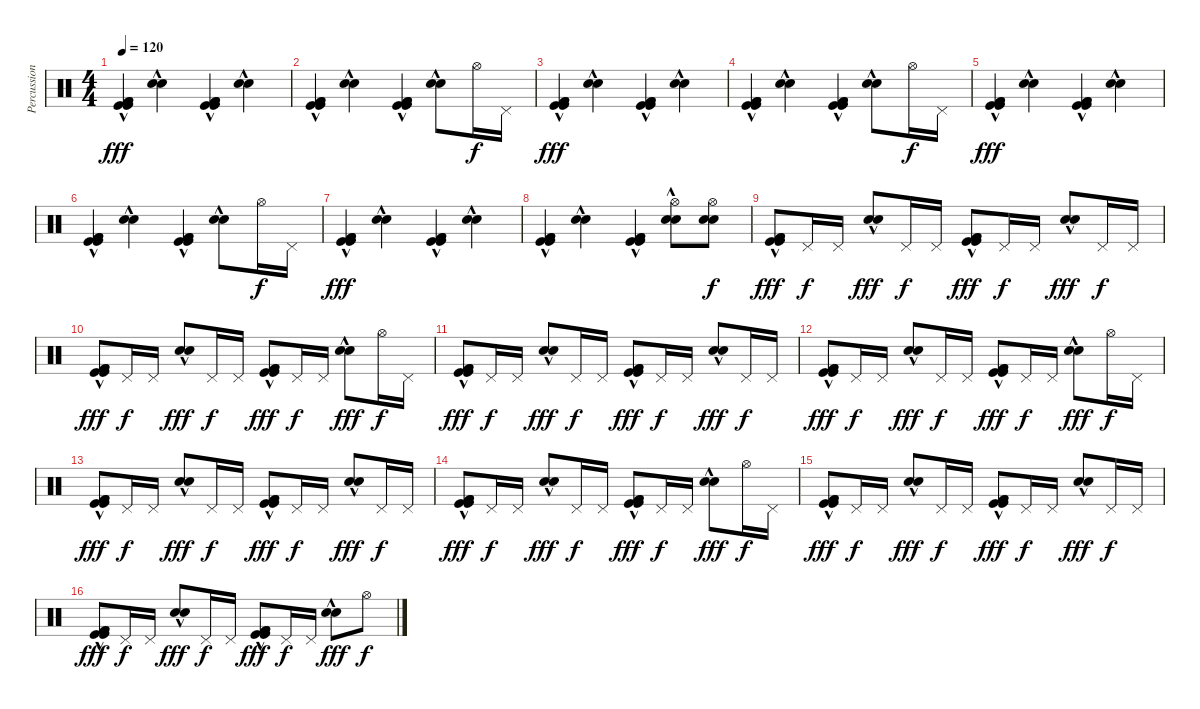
\track ("Percussion" "Percussion") {instrument percussion}
\staff {score}
\articulation defaults
\ts (4 4)
\tempo 120
\clef neutral
\ks c
("Kick (hit)" "Kick (hit) 2" "Kick (hit)"{hac} "Kick (hit) 2"{hac}).4{dy fff} ("Electric Snare (hit)"{hac} "Snare (hit) 2"{hac}).4 ("Kick (hit)" "Kick (hit) 2" "Kick (hit)"{hac} "Kick (hit) 2"{hac}).4 ("Electric Snare (hit)"{hac} "Snare (hit) 2"{hac}).4 |
("Kick (hit)" "Kick (hit) 2" "Kick (hit)"{hac} "Kick (hit) 2"{hac}).4 ("Electric Snare (hit)"{hac} "Snare (hit) 2"{hac}).4 ("Kick (hit)" "Kick (hit) 2" "Kick (hit)"{hac} "Kick (hit) 2"{hac}).4 ("Electric Snare (hit)"{hac} "Snare (hit) 2"{hac}).8 "Hi-Hat (open)".16{dy f} "Pedal Hi-Hat (hit)".16 |
("Kick (hit)" "Kick (hit) 2" "Kick (hit)"{hac} "Kick (hit) 2"{hac}).4{dy fff} ("Electric Snare (hit)"{hac} "Snare (hit) 2"{hac}).4 ("Kick (hit)" "Kick (hit) 2" "Kick (hit)"{hac} "Kick (hit) 2"{hac}).4 ("Electric Snare (hit)"{hac} "Snare (hit) 2"{hac}).4 |
("Kick (hit)" "Kick (hit) 2" "Kick (hit)"{hac} "Kick (hit) 2"{hac}).4 ("Electric Snare (hit)"{hac} "Snare (hit) 2"{hac}).4 ("Kick (hit)" "Kick (hit) 2" "Kick (hit)"{hac} "Kick (hit) 2"{hac}).4 ("Electric Snare (hit)"{hac} "Snare (hit) 2"{hac}).8 "Hi-Hat (open)".16{dy f} "Pedal Hi-Hat (hit)".16 |
("Kick (hit)" "Kick (hit) 2" "Kick (hit)"{hac} "Kick (hit) 2"{hac}).4{dy fff} ("Electric Snare (hit)"{hac} "Snare (hit) 2"{hac}).4 ("Kick (hit)" "Kick (hit) 2" "Kick (hit)"{hac} "Kick (hit) 2"{hac}).4 ("Electric Snare (hit)"{hac} "Snare (hit) 2"{hac}).4 |
("Kick (hit)" "Kick (hit) 2" "Kick (hit)"{hac} "Kick (hit) 2"{hac}).4 ("Electric Snare (hit)"{hac} "Snare (hit) 2"{hac}).4 ("Kick (hit)" "Kick (hit) 2" "Kick (hit)"{hac} "Kick (hit) 2"{hac}).4 ("Electric Snare (hit)"{hac} "Snare (hit) 2"{hac}).8 "Hi-Hat (open)".16{dy f} "Pedal Hi-Hat (hit)".16 |
("Kick (hit)" "Kick (hit) 2" "Kick (hit)"{hac} "Kick (hit) 2"{hac}).4{dy fff} ("Electric Snare (hit)"{hac} "Snare (hit) 2"{hac}).4 ("Kick (hit)" "Kick (hit) 2" "Kick (hit)"{hac} "Kick (hit) 2"{hac}).4 ("Electric Snare (hit)"{hac} "Snare (hit) 2"{hac}).4 |
("Kick (hit)" "Kick (hit) 2" "Kick (hit)"{hac} "Kick (hit) 2"{hac}).4 ("Electric Snare (hit)"{hac} "Snare (hit) 2"{hac}).4 ("Kick (hit)" "Kick (hit) 2" "Kick (hit)"{hac} "Kick (hit) 2"{hac}).4 ("Hi-Hat (open)" "Electric Snare (hit)"{hac} "Snare (hit) 2"{hac}).8 ("Hi-Hat (open)" "Electric Snare (hit)" "Snare (hit) 2").8{dy f} |
("Kick (hit)" "Kick (hit) 2" "Kick (hit)"{hac} "Kick (hit) 2"{hac}).8{dy fff} "Pedal Hi-Hat (hit)".16{dy f} "Pedal Hi-Hat (hit)".16 ("Electric Snare (hit)"{hac} "Snare (hit) 2"{hac}).8{dy fff} "Pedal Hi-Hat (hit)".16{dy f} "Pedal Hi-Hat (hit)".16 ("Kick (hit)" "Kick (hit) 2" "Kick (hit)"{hac} "Kick (hit) 2"{hac}).8{dy fff} "Pedal Hi-Hat (hit)".16{dy f} "Pedal Hi-Hat (hit)".16 ("Electric Snare (hit)"{hac} "Snare (hit) 2"{hac}).8{dy fff} "Pedal Hi-Hat (hit)".16{dy f} "Pedal Hi-Hat (hit)".16 |
("Kick (hit)" "Kick (hit) 2" "Kick (hit)"{hac} "Kick (hit) 2"{hac}).8{dy fff} "Pedal Hi-Hat (hit)".16{dy f} "Pedal Hi-Hat (hit)".16 ("Electric Snare (hit)"{hac} "Snare (hit) 2"{hac}).8{dy fff} "Pedal Hi-Hat (hit)".16{dy f} "Pedal Hi-Hat (hit)".16 ("Kick (hit)" "Kick (hit) 2" "Kick (hit)"{hac} "Kick (hit) 2"{hac}).8{dy fff} "Pedal Hi-Hat (hit)".16{dy f} "Pedal Hi-Hat (hit)".16 ("Electric Snare (hit)"{hac} "Snare (hit) 2"{hac}).8{dy fff} "Hi-Hat (open)".16{dy f} "Pedal Hi-Hat (hit)".16 |
("Kick (hit)" "Kick (hit) 2" "Kick (hit)"{hac} "Kick (hit) 2"{hac}).8{dy fff} "Pedal Hi-Hat (hit)".16{dy f} "Pedal Hi-Hat (hit)".16 ("Electric Snare (hit)"{hac} "Snare (hit) 2"{hac}).8{dy fff} "Pedal Hi-Hat (hit)".16{dy f} "Pedal Hi-Hat (hit)".16 ("Kick (hit)" "Kick (hit) 2" "Kick (hit)"{hac} "Kick (hit) 2"{hac}).8{dy fff} "Pedal Hi-Hat (hit)".16{dy f} "Pedal Hi-Hat (hit)".16 ("Electric Snare (hit)"{hac} "Snare (hit) 2"{hac}).8{dy fff} "Pedal Hi-Hat (hit)".16{dy f} "Pedal Hi-Hat (hit)".16 |
("Kick (hit)" "Kick (hit) 2" "Kick (hit)"{hac} "Kick (hit) 2"{hac}).8{dy fff} "Pedal Hi-Hat (hit)".16{dy f} "Pedal Hi-Hat (hit)".16 ("Electric Snare (hit)"{hac} "Snare (hit) 2"{hac}).8{dy fff} "Pedal Hi-Hat (hit)".16{dy f} "Pedal Hi-Hat (hit)".16 ("Kick (hit)" "Kick (hit) 2" "Kick (hit)"{hac} "Kick (hit) 2"{hac}).8{dy fff} "Pedal Hi-Hat (hit)".16{dy f} "Pedal Hi-Hat (hit)".16 ("Electric Snare (hit)"{hac} "Snare (hit) 2"{hac}).8{dy fff} "Hi-Hat (open)".16{dy f} "Pedal Hi-Hat (hit)".16 |
("Kick (hit)" "Kick (hit) 2" "Kick (hit)"{hac} "Kick (hit) 2"{hac}).8{dy fff} "Pedal Hi-Hat (hit)".16{dy f} "Pedal Hi-Hat (hit)".16 ("Electric Snare (hit)"{hac} "Snare (hit) 2"{hac}).8{dy fff} "Pedal Hi-Hat (hit)".16{dy f} "Pedal Hi-Hat (hit)".16 ("Kick (hit)" "Kick (hit) 2" "Kick (hit)"{hac} "Kick (hit) 2"{hac}).8{dy fff} "Pedal Hi-Hat (hit)".16{dy f} "Pedal Hi-Hat (hit)".16 ("Electric Snare (hit)"{hac} "Snare (hit) 2"{hac}).8{dy fff} "Pedal Hi-Hat (hit)".16{dy f} "Pedal Hi-Hat (hit)".16 |
("Kick (hit)" "Kick (hit) 2" "Kick (hit)"{hac} "Kick (hit) 2"{hac}).8{dy fff} "Pedal Hi-Hat (hit)".16{dy f} "Pedal Hi-Hat (hit)".16 ("Electric Snare (hit)"{hac} "Snare (hit) 2"{hac}).8{dy fff} "Pedal Hi-Hat (hit)".16{dy f} "Pedal Hi-Hat (hit)".16 ("Kick (hit)" "Kick (hit) 2" "Kick (hit)"{hac} "Kick (hit) 2"{hac}).8{dy fff} "Pedal Hi-Hat (hit)".16{dy f} "Pedal Hi-Hat (hit)".16 ("Electric Snare (hit)"{hac} "Snare (hit) 2"{hac}).8{dy fff} "Hi-Hat (open)".16{dy f} "Pedal Hi-Hat (hit)".16 |
("Kick (hit)" "Kick (hit) 2" "Kick (hit)"{hac} "Kick (hit) 2"{hac}).8{dy fff} "Pedal Hi-Hat (hit)".16{dy f} "Pedal Hi-Hat (hit)".16 ("Electric Snare (hit)"{hac} "Snare (hit) 2"{hac}).8{dy fff} "Pedal Hi-Hat (hit)".16{dy f} "Pedal Hi-Hat (hit)".16 ("Kick (hit)" "Kick (hit) 2" "Kick (hit)"{hac} "Kick (hit) 2"{hac}).8{dy fff} "Pedal Hi-Hat (hit)".16{dy f} "Pedal Hi-Hat (hit)".16 ("Electric Snare (hit)"{hac} "Snare (hit) 2"{hac}).8{dy fff} "Pedal Hi-Hat (hit)".16{dy f} "Pedal Hi-Hat (hit)".16 |
("Kick (hit)" "Kick (hit) 2" "Kick (hit)"{hac} "Kick (hit) 2"{hac}).8{dy fff} "Pedal Hi-Hat (hit)".16{dy f} "Pedal Hi-Hat (hit)".16 ("Electric Snare (hit)"{hac} "Snare (hit) 2"{hac}).8{dy fff} "Pedal Hi-Hat (hit)".16{dy f} "Pedal Hi-Hat (hit)".16 ("Kick (hit)" "Kick (hit) 2" "Kick (hit)"{hac} "Kick (hit) 2"{hac}).8{dy fff} "Pedal Hi-Hat (hit)".16{dy f} "Pedal Hi-Hat (hit)".16 ("Electric Snare (hit)"{hac} "Snare (hit) 2"{hac}).8{dy fff} "Hi-Hat (open)".8{dy f}
